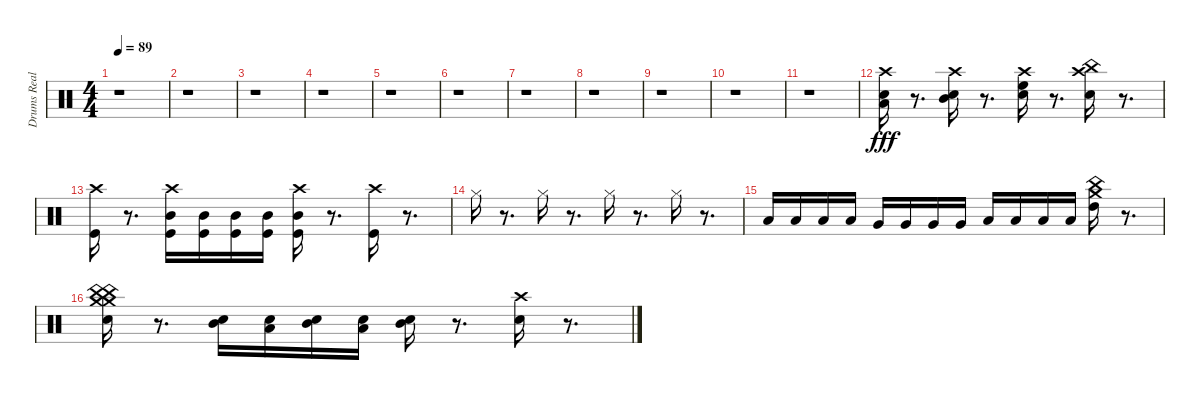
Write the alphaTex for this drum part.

\track ("Drums Real" "Drums Real") {instrument percussion}
\staff {score}
\articulation defaults
\ts (4 4)
\tempo 89
\clef neutral
\ks c
r.1{dy fff} |
r.1 |
r.1 |
r.1 |
r.1 |
r.1 |
r.1 |
r.1 |
r.1 |
r.1 |
r.1 |
("Electric Snare (hit)" "Crash high (hit)" "Low Tom (hit)").16 r.8{d} ("Electric Snare (hit)" "Crash high (hit)" "Mid Tom (hit)").16 r.8{d} ("Electric Snare (hit)" "High Floor Tom (hit)" "Crash high (hit)").16 r.8{d} ("Electric Snare (hit)" "Crash high (hit)" "China (hit)").16 r.8{d} |
("Kick (hit)" "Crash high (hit)").16 r.8{d} ("Crash high (hit)" "Kick (hit)" "Mid Tom (hit)").16 ("Kick (hit)" "Mid Tom (hit)").16 ("Kick (hit)" "Mid Tom (hit)").16 ("Kick (hit)" "Mid Tom (hit)").16 ("Crash high (hit)" "Kick (hit)" "Mid Tom (hit)").16 r.8{d} ("Crash high (hit)" "Kick (hit)").16 r.8{d} |
"Hi-Hat (closed)".16 r.8{d} "Hi-Hat (closed)".16 r.8{d} "Hi-Hat (closed)".16 r.8{d} "Hi-Hat (closed)".16 r.8{d} |
"Low Floor Tom (hit)".16 "Low Floor Tom (hit)".16 "Low Floor Tom (hit)".16 "Low Floor Tom (hit)".16 "Very Low Tom (hit)".16 "Very Low Tom (hit)".16 "Very Low Tom (hit)".16 "Very Low Tom (hit)".16 "Low Tom (hit)".16 "Low Tom (hit)".16 "Low Tom (hit)".16 "Low Tom (hit)".16 ("Crash medium (hit)" "China (hit)" "High Tom (hit)").16 r.8{d} |
("Electric Snare (hit)" "China (hit)" "China (hit)" "Crash medium (hit)" "Crash medium (hit)").16 r.8{d} ("Mid Tom (hit)" "Snare (hit) 2").16 ("Low Tom (hit)" "Snare (hit) 2").16 ("Mid Tom (hit)" "Snare (hit) 2").16 ("Low Tom (hit)" "Snare (hit) 2").16 ("Mid Tom (hit)" "Snare (hit) 2").16 r.8{d} ("Snare (hit) 2" "Crash high (hit)").16 r.8{d}
